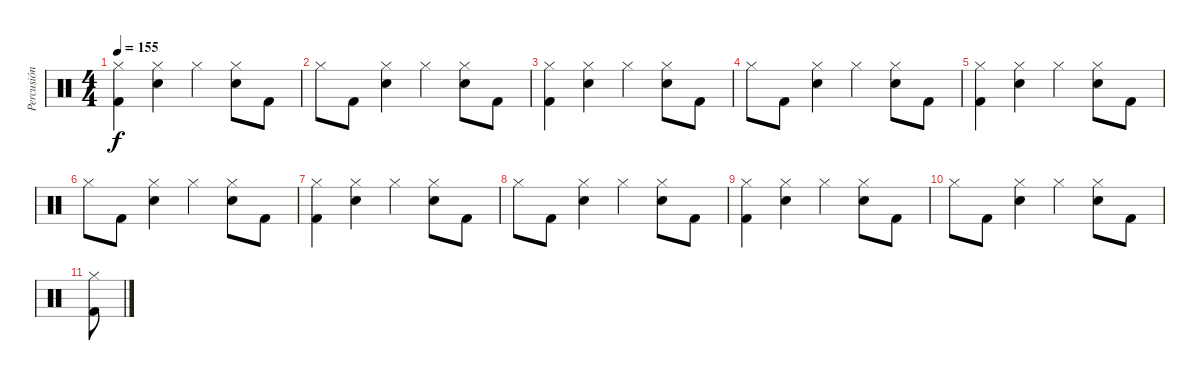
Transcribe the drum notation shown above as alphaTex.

\track ("Percusión" "Percusión") {instrument percussion}
\staff {score}
\articulation defaults
\ts (4 4)
\tempo 155
\clef neutral
\ks c
("Hi-Hat (closed)" "Kick (hit) 2").4{dy f} ("Hi-Hat (closed)" "Electric Snare (hit)").4 "Hi-Hat (closed)".4 ("Hi-Hat (closed)" "Electric Snare (hit)").8 "Kick (hit) 2".8 |
"Hi-Hat (closed)".8 "Kick (hit) 2".8 ("Hi-Hat (closed)" "Electric Snare (hit)").4 "Hi-Hat (closed)".4 ("Hi-Hat (closed)" "Electric Snare (hit)").8 "Kick (hit) 2".8 |
("Hi-Hat (closed)" "Kick (hit) 2").4 ("Hi-Hat (closed)" "Electric Snare (hit)").4 "Hi-Hat (closed)".4 ("Hi-Hat (closed)" "Electric Snare (hit)").8 "Kick (hit) 2".8 |
"Hi-Hat (closed)".8 "Kick (hit) 2".8 ("Hi-Hat (closed)" "Electric Snare (hit)").4 "Hi-Hat (closed)".4 ("Hi-Hat (closed)" "Electric Snare (hit)").8 "Kick (hit) 2".8 |
("Hi-Hat (closed)" "Kick (hit) 2").4 ("Hi-Hat (closed)" "Electric Snare (hit)").4 "Hi-Hat (closed)".4 ("Hi-Hat (closed)" "Electric Snare (hit)").8 "Kick (hit) 2".8 |
"Hi-Hat (closed)".8 "Kick (hit) 2".8 ("Hi-Hat (closed)" "Electric Snare (hit)").4 "Hi-Hat (closed)".4 ("Hi-Hat (closed)" "Electric Snare (hit)").8 "Kick (hit) 2".8 |
("Hi-Hat (closed)" "Kick (hit) 2").4 ("Hi-Hat (closed)" "Electric Snare (hit)").4 "Hi-Hat (closed)".4 ("Hi-Hat (closed)" "Electric Snare (hit)").8 "Kick (hit) 2".8 |
"Hi-Hat (closed)".8 "Kick (hit) 2".8 ("Hi-Hat (closed)" "Electric Snare (hit)").4 "Hi-Hat (closed)".4 ("Hi-Hat (closed)" "Electric Snare (hit)").8 "Kick (hit) 2".8 |
("Hi-Hat (closed)" "Kick (hit) 2").4 ("Hi-Hat (closed)" "Electric Snare (hit)").4 "Hi-Hat (closed)".4 ("Hi-Hat (closed)" "Electric Snare (hit)").8 "Kick (hit) 2".8 |
"Hi-Hat (closed)".8 "Kick (hit) 2".8 ("Hi-Hat (closed)" "Electric Snare (hit)").4 "Hi-Hat (closed)".4 ("Hi-Hat (closed)" "Electric Snare (hit)").8 "Kick (hit) 2".8 |
("Hi-Hat (closed)" "Kick (hit) 2").8
